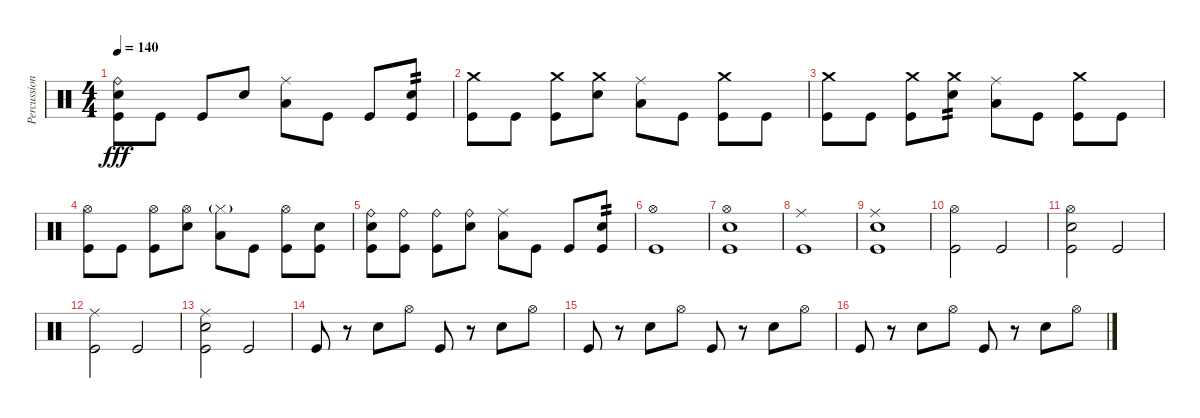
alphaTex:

\track ("Percussion" "Percussion") {instrument percussion}
\staff {score}
\articulation defaults
\ts (4 4)
\tempo 140
\clef neutral
\ks c
("Ride (bell)" "Snare (hit) 2" "Kick (hit)").8{dy fff} "Kick (hit)".8 "Kick (hit)".8 "Snare (hit) 2".8 ("Ride (middle)" "Low Floor Tom (hit)").8 "Kick (hit)".8 "Kick (hit)".8 ("Snare (hit) 2" "Kick (hit)").8{tp 2} |
("Crash medium (hit)" "Kick (hit)").8 "Kick (hit)".8 ("Crash medium (hit)" "Kick (hit)").8 ("Crash medium (hit)" "Snare (hit) 2").8 ("Ride (middle)" "Low Floor Tom (hit)").8 "Kick (hit)".8 ("Crash medium (hit)" "Kick (hit)").8 "Kick (hit)".8 |
("Crash medium (hit)" "Kick (hit)").8 "Kick (hit)".8 ("Crash medium (hit)" "Kick (hit)").8 ("Crash medium (hit)" "Snare (hit) 2").8{tp 2} ("Ride (middle)" "Low Floor Tom (hit)").8 "Kick (hit)".8 ("Crash medium (hit)" "Kick (hit)").8 "Kick (hit)".8 |
("Hi-Hat (open)" "Kick (hit)").8 "Kick (hit)".8 ("Hi-Hat (open)" "Kick (hit)").8 ("Hi-Hat (open)" "Snare (hit) 2").8 ("Hi-Hat (closed)"{g} "Low Floor Tom (hit)").8 "Kick (hit)".8 ("Hi-Hat (open)" "Kick (hit)").8 ("Snare (hit) 2" "Kick (hit)").8 |
("Ride (bell)" "Snare (hit) 2" "Kick (hit)").8 ("Ride (bell)" "Kick (hit)").8 ("Ride (bell)" "Kick (hit)").8 ("Ride (bell)" "Snare (hit) 2").8 ("Ride (middle)" "Low Floor Tom (hit)").8 "Kick (hit)".8 "Kick (hit)".8 ("Snare (hit) 2" "Kick (hit)").8{tp 2} |
("Hi-Hat (open)" "Kick (hit)").1 |
("Hi-Hat (open)" "Snare (hit) 2" "Kick (hit)").1 |
("Ride (middle)" "Kick (hit)").1 |
("Ride (middle)" "Snare (hit) 2" "Kick (hit)").1 |
("Hi-Hat (open)" "Kick (hit)").2 "Kick (hit)".2 |
("Hi-Hat (open)" "Snare (hit) 2" "Kick (hit)").2 "Kick (hit)".2 |
("Ride (middle)" "Kick (hit)").2 "Kick (hit)".2 |
("Ride (middle)" "Snare (hit) 2" "Kick (hit)").2 "Kick (hit)".2 |
"Kick (hit)".8 r.8 "Snare (hit) 2".8 "Hi-Hat (open)".8 "Kick (hit)".8 r.8 "Snare (hit) 2".8 "Hi-Hat (open)".8 |
"Kick (hit)".8 r.8 "Snare (hit) 2".8 "Hi-Hat (open)".8 "Kick (hit)".8 r.8 "Snare (hit) 2".8 "Hi-Hat (open)".8 |
"Kick (hit)".8 r.8 "Snare (hit) 2".8 "Hi-Hat (open)".8 "Kick (hit)".8 r.8 "Snare (hit) 2".8 "Hi-Hat (open)".8
